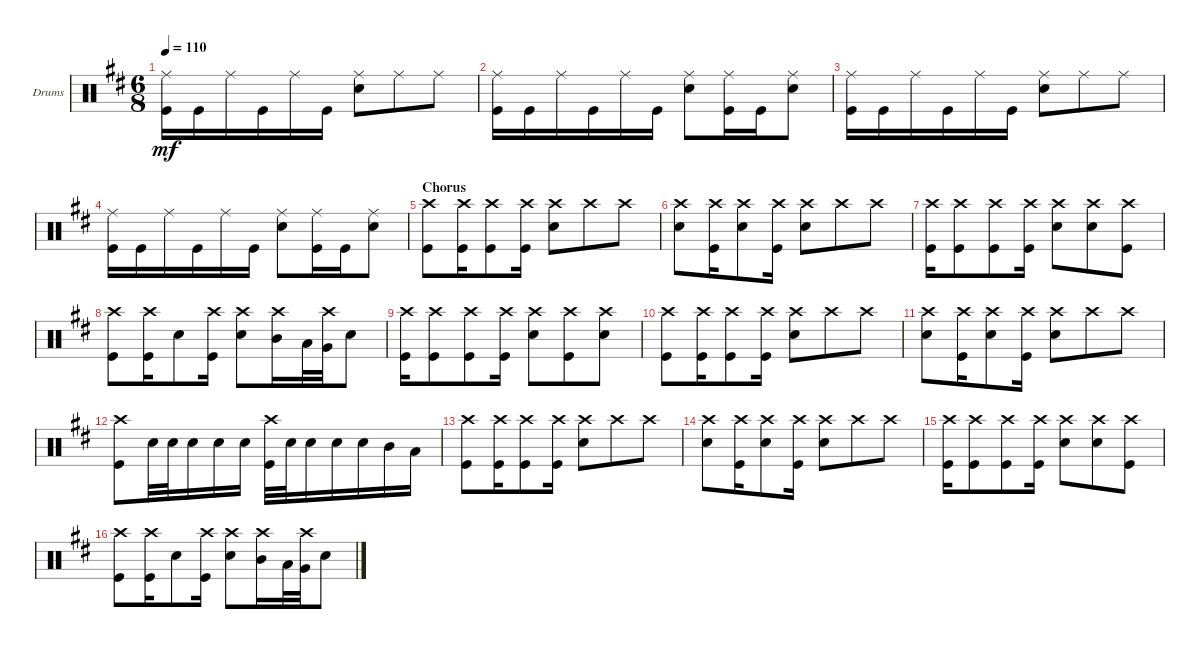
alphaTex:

\defaultSystemsLayout 4
\bracketExtendMode groupsimilarinstruments
\firstSystemTrackNameOrientation horizontal
\otherSystemsTrackNameOrientation horizontal
\track ("Drumkit" "Drums") {instrument percussion}
\staff {score}
\articulation defaults
\ts (6 8)
\tempo 110
\clef neutral
\ks d
("Kick (hit)" "Ride (middle)").16{dy mf} "Kick (hit)".16 "Ride (middle)".16 "Kick (hit)".16 "Ride (middle)".16 "Kick (hit)".16 ("Snare (hit) 2" "Ride (middle)").8 "Ride (middle)".8 "Ride (middle)".8 |
("Kick (hit)" "Ride (middle)").16 "Kick (hit)".16 "Ride (middle)".16 "Kick (hit)".16 "Ride (middle)".16 "Kick (hit)".16 ("Snare (hit) 2" "Ride (middle)").8 ("Kick (hit)" "Ride (middle)").16 "Kick (hit)".16 ("Snare (hit) 2" "Ride (middle)").8 |
("Kick (hit)" "Ride (middle)").16 "Kick (hit)".16 "Ride (middle)".16 "Kick (hit)".16 "Ride (middle)".16 "Kick (hit)".16 ("Snare (hit) 2" "Ride (middle)").8 "Ride (middle)".8 "Ride (middle)".8 |
("Kick (hit)" "Ride (middle)").16 "Kick (hit)".16 "Ride (middle)".16 "Kick (hit)".16 "Ride (middle)".16 "Kick (hit)".16 ("Snare (hit) 2" "Ride (middle)").8 ("Kick (hit)" "Ride (middle)").16 "Kick (hit)".16 ("Snare (hit) 2" "Ride (middle)").8 |
\section ("" "Chorus")
("Kick (hit)" "Crash high (hit)").8 ("Kick (hit)" "Crash high (hit)").16 ("Kick (hit)" "Crash high (hit)").8 ("Kick (hit)" "Crash high (hit)").16 ("Snare (hit) 2" "Crash high (hit)").8 "Crash high (hit)".8 "Crash high (hit)".8 |
("Crash high (hit)" "Snare (hit) 2").8 ("Kick (hit)" "Crash high (hit)").16 ("Crash high (hit)" "Snare (hit) 2").8 ("Kick (hit)" "Crash high (hit)").16 ("Snare (hit) 2" "Crash high (hit)").8 "Crash high (hit)".8 "Crash high (hit)".8 |
("Kick (hit)" "Crash high (hit)").16 ("Kick (hit)" "Crash high (hit)").8 ("Kick (hit)" "Crash high (hit)").8 ("Kick (hit)" "Crash high (hit)").16 ("Snare (hit) 2" "Crash high (hit)").8 ("Crash high (hit)" "Snare (hit) 2").8 ("Crash high (hit)" "Kick (hit)").8 |
("Kick (hit)" "Crash high (hit)").8 ("Kick (hit)" "Crash high (hit)").16 "Snare (hit) 2".8 ("Kick (hit)" "Crash high (hit)").16 ("Snare (hit) 2" "Crash high (hit)").8 ("Mid Tom (hit)" "Crash high (hit)").16 "Low Tom (hit)".32 ("Very Low Tom (hit)" "Crash high (hit)").32 "Snare (hit) 2".8 |
("Kick (hit)" "Crash high (hit)").16 ("Kick (hit)" "Crash high (hit)").8 ("Kick (hit)" "Crash high (hit)").8 ("Kick (hit)" "Crash high (hit)").16 ("Snare (hit) 2" "Crash high (hit)").8 ("Kick (hit)" "Crash high (hit)").8 ("Snare (hit) 2" "Crash high (hit)").8 |
("Kick (hit)" "Crash high (hit)").8 ("Kick (hit)" "Crash high (hit)").16 ("Kick (hit)" "Crash high (hit)").8 ("Kick (hit)" "Crash high (hit)").16 ("Snare (hit) 2" "Crash high (hit)").8 "Crash high (hit)".8 "Crash high (hit)".8 |
("Crash high (hit)" "Snare (hit) 2").8 ("Kick (hit)" "Crash high (hit)").16 ("Crash high (hit)" "Snare (hit) 2").8 ("Kick (hit)" "Crash high (hit)").16 ("Snare (hit) 2" "Crash high (hit)").8 "Crash high (hit)".8 "Crash high (hit)".8 |
("Kick (hit)" "Crash high (hit)").8 "Snare (hit) 2".32 "Snare (hit) 2".32 "Snare (hit) 2".16 "Snare (hit) 2".16 "Snare (hit) 2".16 ("Kick (hit)" "Crash high (hit)").32 "Snare (hit) 2".32 "Snare (hit) 2".16 "Snare (hit) 2".16 "Snare (hit) 2".16 "Mid Tom (hit)".16 "Low Tom (hit)".16 |
("Kick (hit)" "Crash high (hit)").8 ("Kick (hit)" "Crash high (hit)").16 ("Kick (hit)" "Crash high (hit)").8 ("Kick (hit)" "Crash high (hit)").16 ("Snare (hit) 2" "Crash high (hit)").8 "Crash high (hit)".8 "Crash high (hit)".8 |
("Crash high (hit)" "Snare (hit) 2").8 ("Kick (hit)" "Crash high (hit)").16 ("Crash high (hit)" "Snare (hit) 2").8 ("Kick (hit)" "Crash high (hit)").16 ("Snare (hit) 2" "Crash high (hit)").8 "Crash high (hit)".8 "Crash high (hit)".8 |
("Kick (hit)" "Crash high (hit)").16 ("Kick (hit)" "Crash high (hit)").8 ("Kick (hit)" "Crash high (hit)").8 ("Kick (hit)" "Crash high (hit)").16 ("Snare (hit) 2" "Crash high (hit)").8 ("Crash high (hit)" "Snare (hit) 2").8 ("Crash high (hit)" "Kick (hit)").8 |
("Kick (hit)" "Crash high (hit)").8 ("Kick (hit)" "Crash high (hit)").16 "Snare (hit) 2".8 ("Kick (hit)" "Crash high (hit)").16 ("Snare (hit) 2" "Crash high (hit)").8 ("Mid Tom (hit)" "Crash high (hit)").16 "Low Tom (hit)".32 ("Very Low Tom (hit)" "Crash high (hit)").32 "Snare (hit) 2".8
